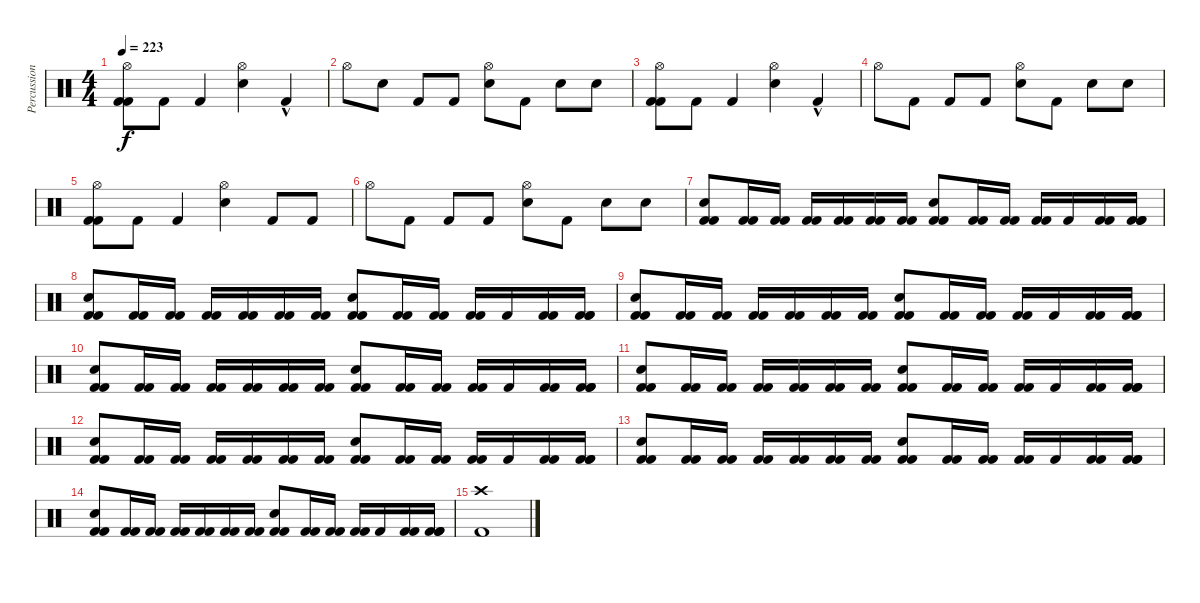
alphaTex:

\track ("Percussion" "Percussion") {instrument percussion}
\staff {score}
\articulation defaults
\ts (4 4)
\tempo 223
\clef neutral
\ks c
("Hi-Hat (open)" "Kick (hit) 2" "Kick (hit) 2").8{dy f} "Kick (hit) 2".8 "Kick (hit) 2".4 ("Hi-Hat (open)" "Electric Snare (hit)").4 "Kick (hit) 2"{hac}.4 |
"Hi-Hat (open)".8 "Electric Snare (hit)".8 "Kick (hit) 2".8 "Kick (hit) 2".8 ("Hi-Hat (open)" "Electric Snare (hit)").8 "Kick (hit) 2".8 "Electric Snare (hit)".8 "Electric Snare (hit)".8 |
("Hi-Hat (open)" "Kick (hit) 2" "Kick (hit) 2").8 "Kick (hit) 2".8 "Kick (hit) 2".4 ("Hi-Hat (open)" "Electric Snare (hit)").4 "Kick (hit) 2"{hac}.4 |
"Hi-Hat (open)".8 "Kick (hit) 2".8 "Kick (hit) 2".8 "Kick (hit) 2".8 ("Hi-Hat (open)" "Electric Snare (hit)").8 "Kick (hit) 2".8 "Electric Snare (hit)".8 "Electric Snare (hit)".8 |
("Hi-Hat (open)" "Kick (hit) 2" "Kick (hit) 2").8 "Kick (hit) 2".8 "Kick (hit) 2".4 ("Hi-Hat (open)" "Electric Snare (hit)").4 "Kick (hit) 2".8 "Kick (hit) 2".8 |
"Hi-Hat (open)".8 "Kick (hit) 2".8 "Kick (hit) 2".8 "Kick (hit) 2".8 ("Hi-Hat (open)" "Electric Snare (hit)").8 "Kick (hit) 2".8 "Electric Snare (hit)".8 "Electric Snare (hit)".8 |
("Electric Snare (hit)" "Kick (hit) 2" "Kick (hit) 2").8 ("Kick (hit) 2" "Kick (hit) 2").16 ("Kick (hit) 2" "Kick (hit) 2").16 ("Kick (hit) 2" "Kick (hit) 2").16 ("Kick (hit) 2" "Kick (hit) 2").16 ("Kick (hit) 2" "Kick (hit) 2").16 ("Kick (hit) 2" "Kick (hit) 2").16 ("Electric Snare (hit)" "Kick (hit) 2" "Kick (hit) 2").8 ("Kick (hit) 2" "Kick (hit) 2").16 ("Kick (hit) 2" "Kick (hit) 2").16 ("Kick (hit) 2" "Kick (hit) 2").16 "Kick (hit) 2".16 ("Kick (hit) 2" "Kick (hit) 2").16 ("Kick (hit) 2" "Kick (hit) 2" "Kick (hit) 2").16 |
("Electric Snare (hit)" "Kick (hit) 2" "Kick (hit) 2").8 ("Kick (hit) 2" "Kick (hit) 2").16 ("Kick (hit) 2" "Kick (hit) 2").16 ("Kick (hit) 2" "Kick (hit) 2").16 ("Kick (hit) 2" "Kick (hit) 2").16 ("Kick (hit) 2" "Kick (hit) 2").16 ("Kick (hit) 2" "Kick (hit) 2").16 ("Electric Snare (hit)" "Kick (hit) 2" "Kick (hit) 2").8 ("Kick (hit) 2" "Kick (hit) 2").16 ("Kick (hit) 2" "Kick (hit) 2").16 ("Kick (hit) 2" "Kick (hit) 2").16 "Kick (hit) 2".16 ("Kick (hit) 2" "Kick (hit) 2").16 ("Kick (hit) 2" "Kick (hit) 2" "Kick (hit) 2").16 |
("Electric Snare (hit)" "Kick (hit) 2" "Kick (hit) 2").8 ("Kick (hit) 2" "Kick (hit) 2").16 ("Kick (hit) 2" "Kick (hit) 2").16 ("Kick (hit) 2" "Kick (hit) 2").16 ("Kick (hit) 2" "Kick (hit) 2").16 ("Kick (hit) 2" "Kick (hit) 2").16 ("Kick (hit) 2" "Kick (hit) 2").16 ("Electric Snare (hit)" "Kick (hit) 2" "Kick (hit) 2").8 ("Kick (hit) 2" "Kick (hit) 2").16 ("Kick (hit) 2" "Kick (hit) 2").16 ("Kick (hit) 2" "Kick (hit) 2").16 "Kick (hit) 2".16 ("Kick (hit) 2" "Kick (hit) 2").16 ("Kick (hit) 2" "Kick (hit) 2" "Kick (hit) 2").16 |
("Electric Snare (hit)" "Kick (hit) 2" "Kick (hit) 2").8 ("Kick (hit) 2" "Kick (hit) 2").16 ("Kick (hit) 2" "Kick (hit) 2").16 ("Kick (hit) 2" "Kick (hit) 2").16 ("Kick (hit) 2" "Kick (hit) 2").16 ("Kick (hit) 2" "Kick (hit) 2").16 ("Kick (hit) 2" "Kick (hit) 2").16 ("Electric Snare (hit)" "Kick (hit) 2" "Kick (hit) 2").8 ("Kick (hit) 2" "Kick (hit) 2").16 ("Kick (hit) 2" "Kick (hit) 2").16 ("Kick (hit) 2" "Kick (hit) 2").16 "Kick (hit) 2".16 ("Kick (hit) 2" "Kick (hit) 2").16 ("Kick (hit) 2" "Kick (hit) 2" "Kick (hit) 2").16 |
("Electric Snare (hit)" "Kick (hit) 2" "Kick (hit) 2").8 ("Kick (hit) 2" "Kick (hit) 2").16 ("Kick (hit) 2" "Kick (hit) 2").16 ("Kick (hit) 2" "Kick (hit) 2").16 ("Kick (hit) 2" "Kick (hit) 2").16 ("Kick (hit) 2" "Kick (hit) 2").16 ("Kick (hit) 2" "Kick (hit) 2").16 ("Electric Snare (hit)" "Kick (hit) 2" "Kick (hit) 2").8 ("Kick (hit) 2" "Kick (hit) 2").16 ("Kick (hit) 2" "Kick (hit) 2").16 ("Kick (hit) 2" "Kick (hit) 2").16 "Kick (hit) 2".16 ("Kick (hit) 2" "Kick (hit) 2").16 ("Kick (hit) 2" "Kick (hit) 2" "Kick (hit) 2").16 |
("Electric Snare (hit)" "Kick (hit) 2" "Kick (hit) 2").8 ("Kick (hit) 2" "Kick (hit) 2").16 ("Kick (hit) 2" "Kick (hit) 2").16 ("Kick (hit) 2" "Kick (hit) 2").16 ("Kick (hit) 2" "Kick (hit) 2").16 ("Kick (hit) 2" "Kick (hit) 2").16 ("Kick (hit) 2" "Kick (hit) 2").16 ("Electric Snare (hit)" "Kick (hit) 2" "Kick (hit) 2").8 ("Kick (hit) 2" "Kick (hit) 2").16 ("Kick (hit) 2" "Kick (hit) 2").16 ("Kick (hit) 2" "Kick (hit) 2").16 "Kick (hit) 2".16 ("Kick (hit) 2" "Kick (hit) 2").16 ("Kick (hit) 2" "Kick (hit) 2" "Kick (hit) 2").16 |
("Electric Snare (hit)" "Kick (hit) 2" "Kick (hit) 2").8 ("Kick (hit) 2" "Kick (hit) 2").16 ("Kick (hit) 2" "Kick (hit) 2").16 ("Kick (hit) 2" "Kick (hit) 2").16 ("Kick (hit) 2" "Kick (hit) 2").16 ("Kick (hit) 2" "Kick (hit) 2").16 ("Kick (hit) 2" "Kick (hit) 2").16 ("Electric Snare (hit)" "Kick (hit) 2" "Kick (hit) 2").8 ("Kick (hit) 2" "Kick (hit) 2").16 ("Kick (hit) 2" "Kick (hit) 2").16 ("Kick (hit) 2" "Kick (hit) 2").16 "Kick (hit) 2".16 ("Kick (hit) 2" "Kick (hit) 2").16 ("Kick (hit) 2" "Kick (hit) 2" "Kick (hit) 2").16 |
("Electric Snare (hit)" "Kick (hit) 2" "Kick (hit) 2").8 ("Kick (hit) 2" "Kick (hit) 2").16 ("Kick (hit) 2" "Kick (hit) 2").16 ("Kick (hit) 2" "Kick (hit) 2").16 ("Kick (hit) 2" "Kick (hit) 2").16 ("Kick (hit) 2" "Kick (hit) 2").16 ("Kick (hit) 2" "Kick (hit) 2").16 ("Electric Snare (hit)" "Kick (hit) 2" "Kick (hit) 2").8 ("Kick (hit) 2" "Kick (hit) 2").16 ("Kick (hit) 2" "Kick (hit) 2").16 ("Kick (hit) 2" "Kick (hit) 2").16 "Kick (hit) 2".16 ("Kick (hit) 2" "Kick (hit) 2").16 ("Kick (hit) 2" "Kick (hit) 2" "Kick (hit) 2").16 |
("Crash high (hit)" "Kick (hit) 2").1
